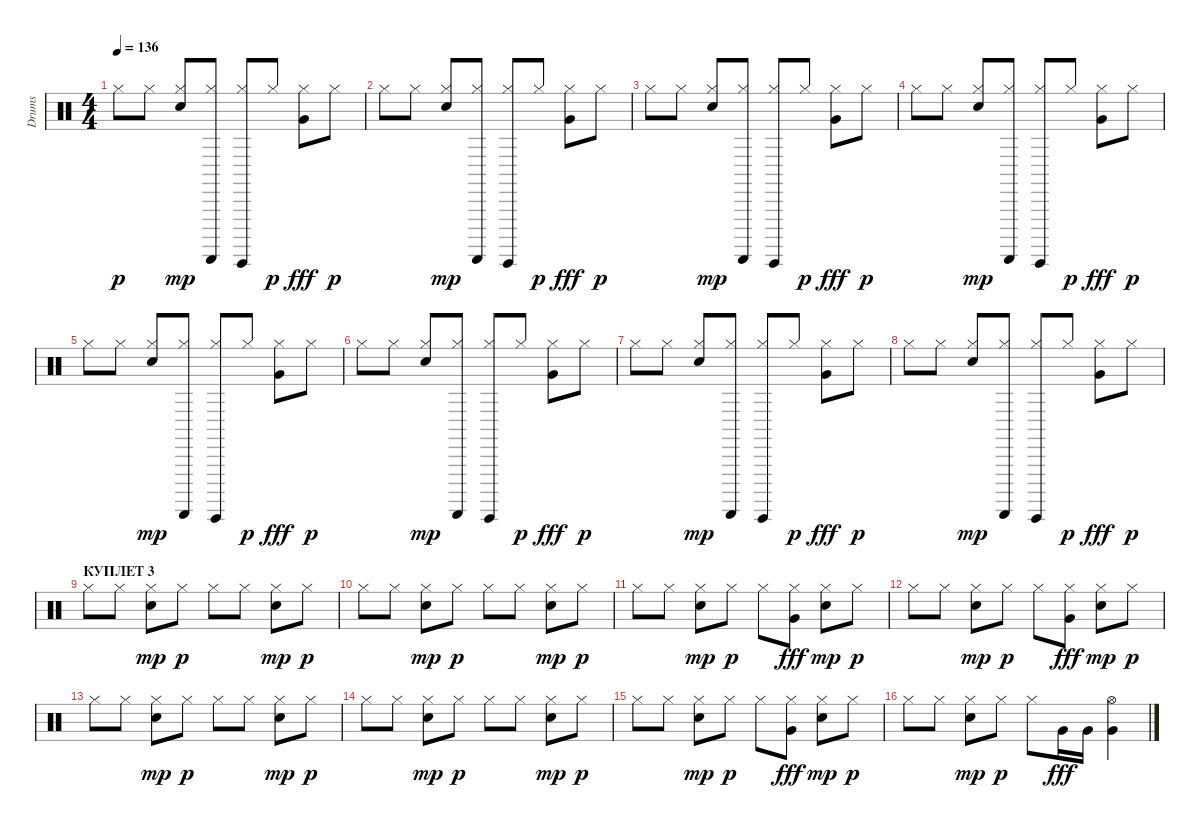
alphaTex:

\track ("Drums" "Drums") {instrument percussion}
\staff {score}
\articulation defaults
\ts (4 4)
\tempo 136
\clef neutral
\ks c "Hi-Hat (closed)".8{dy p} "Hi-Hat (closed)".8
("Hi-Hat (closed)" "Electric Snare (hit)").8{dy mp} ("Hi-Hat (closed)" "Guiro (scrap-return)").8 ("Hi-Hat (closed)" "Guiro (hit)").8 "Hi-Hat (closed)".8{dy p} ("Hi-Hat (closed)" "Very Low Tom (hit)").8{dy fff} "Hi-Hat (closed)".8{dy p} |
"Hi-Hat (closed)".8 "Hi-Hat (closed)".8 ("Hi-Hat (closed)" "Electric Snare (hit)").8{dy mp} ("Hi-Hat (closed)" "Guiro (scrap-return)").8 ("Hi-Hat (closed)" "Guiro (hit)").8 "Hi-Hat (closed)".8{dy p} ("Hi-Hat (closed)" "Very Low Tom (hit)").8{dy fff} "Hi-Hat (closed)".8{dy p} |
"Hi-Hat (closed)".8 "Hi-Hat (closed)".8 ("Hi-Hat (closed)" "Electric Snare (hit)").8{dy mp} ("Hi-Hat (closed)" "Guiro (scrap-return)").8 ("Hi-Hat (closed)" "Guiro (hit)").8 "Hi-Hat (closed)".8{dy p} ("Hi-Hat (closed)" "Very Low Tom (hit)").8{dy fff} "Hi-Hat (closed)".8{dy p} |
"Hi-Hat (closed)".8 "Hi-Hat (closed)".8 ("Hi-Hat (closed)" "Electric Snare (hit)").8{dy mp} ("Hi-Hat (closed)" "Guiro (scrap-return)").8 ("Hi-Hat (closed)" "Guiro (hit)").8 "Hi-Hat (closed)".8{dy p} ("Hi-Hat (closed)" "Very Low Tom (hit)").8{dy fff} "Hi-Hat (closed)".8{dy p} |
"Hi-Hat (closed)".8 "Hi-Hat (closed)".8 ("Hi-Hat (closed)" "Electric Snare (hit)").8{dy mp} ("Hi-Hat (closed)" "Guiro (scrap-return)").8 ("Hi-Hat (closed)" "Guiro (hit)").8 "Hi-Hat (closed)".8{dy p} ("Hi-Hat (closed)" "Very Low Tom (hit)").8{dy fff} "Hi-Hat (closed)".8{dy p} |
"Hi-Hat (closed)".8 "Hi-Hat (closed)".8 ("Hi-Hat (closed)" "Electric Snare (hit)").8{dy mp} ("Hi-Hat (closed)" "Guiro (scrap-return)").8 ("Hi-Hat (closed)" "Guiro (hit)").8 "Hi-Hat (closed)".8{dy p} ("Hi-Hat (closed)" "Very Low Tom (hit)").8{dy fff} "Hi-Hat (closed)".8{dy p} |
"Hi-Hat (closed)".8 "Hi-Hat (closed)".8 ("Hi-Hat (closed)" "Electric Snare (hit)").8{dy mp} ("Hi-Hat (closed)" "Guiro (scrap-return)").8 ("Hi-Hat (closed)" "Guiro (hit)").8 "Hi-Hat (closed)".8{dy p} ("Hi-Hat (closed)" "Very Low Tom (hit)").8{dy fff} "Hi-Hat (closed)".8{dy p} |
"Hi-Hat (closed)".8 "Hi-Hat (closed)".8 ("Hi-Hat (closed)" "Electric Snare (hit)").8{dy mp} ("Hi-Hat (closed)" "Guiro (scrap-return)").8 ("Hi-Hat (closed)" "Guiro (hit)").8 "Hi-Hat (closed)".8{dy p} ("Hi-Hat (closed)" "Very Low Tom (hit)").8{dy fff} "Hi-Hat (closed)".8{dy p} |
\section ("" "КУПЛЕТ 3")
"Hi-Hat (closed)".8 "Hi-Hat (closed)".8 ("Hi-Hat (closed)" "Electric Snare (hit)").8{dy mp} "Hi-Hat (closed)".8{dy p} "Hi-Hat (closed)".8 "Hi-Hat (closed)".8 ("Hi-Hat (closed)" "Electric Snare (hit)").8{dy mp} "Hi-Hat (closed)".8{dy p} |
"Hi-Hat (closed)".8 "Hi-Hat (closed)".8 ("Hi-Hat (closed)" "Electric Snare (hit)").8{dy mp} "Hi-Hat (closed)".8{dy p} "Hi-Hat (closed)".8 "Hi-Hat (closed)".8 ("Hi-Hat (closed)" "Electric Snare (hit)").8{dy mp} "Hi-Hat (closed)".8{dy p} |
"Hi-Hat (closed)".8 "Hi-Hat (closed)".8 ("Hi-Hat (closed)" "Electric Snare (hit)").8{dy mp} "Hi-Hat (closed)".8{dy p} "Hi-Hat (closed)".8 ("Hi-Hat (closed)" "Very Low Tom (hit)").8{dy fff} ("Hi-Hat (closed)" "Electric Snare (hit)").8{dy mp} "Hi-Hat (closed)".8{dy p} |
"Hi-Hat (closed)".8 "Hi-Hat (closed)".8 ("Hi-Hat (closed)" "Electric Snare (hit)").8{dy mp} "Hi-Hat (closed)".8{dy p} "Hi-Hat (closed)".8 ("Hi-Hat (closed)" "Very Low Tom (hit)").8{dy fff} ("Hi-Hat (closed)" "Electric Snare (hit)").8{dy mp} "Hi-Hat (closed)".8{dy p} |
"Hi-Hat (closed)".8 "Hi-Hat (closed)".8 ("Hi-Hat (closed)" "Electric Snare (hit)").8{dy mp} "Hi-Hat (closed)".8{dy p} "Hi-Hat (closed)".8 "Hi-Hat (closed)".8 ("Hi-Hat (closed)" "Electric Snare (hit)").8{dy mp} "Hi-Hat (closed)".8{dy p} |
"Hi-Hat (closed)".8 "Hi-Hat (closed)".8 ("Hi-Hat (closed)" "Electric Snare (hit)").8{dy mp} "Hi-Hat (closed)".8{dy p} "Hi-Hat (closed)".8 "Hi-Hat (closed)".8 ("Hi-Hat (closed)" "Electric Snare (hit)").8{dy mp} "Hi-Hat (closed)".8{dy p} |
"Hi-Hat (closed)".8 "Hi-Hat (closed)".8 ("Hi-Hat (closed)" "Electric Snare (hit)").8{dy mp} "Hi-Hat (closed)".8{dy p} "Hi-Hat (closed)".8 ("Hi-Hat (closed)" "Very Low Tom (hit)").8{dy fff} ("Hi-Hat (closed)" "Electric Snare (hit)").8{dy mp} "Hi-Hat (closed)".8{dy p} |
"Hi-Hat (closed)".8 "Hi-Hat (closed)".8 ("Hi-Hat (closed)" "Electric Snare (hit)").8{dy mp} "Hi-Hat (closed)".8{dy p} "Hi-Hat (closed)".8 "Very Low Tom (hit)".16{dy fff} "Very Low Tom (hit)".16 ("Hi-Hat (open)" "Very Low Tom (hit)").4
